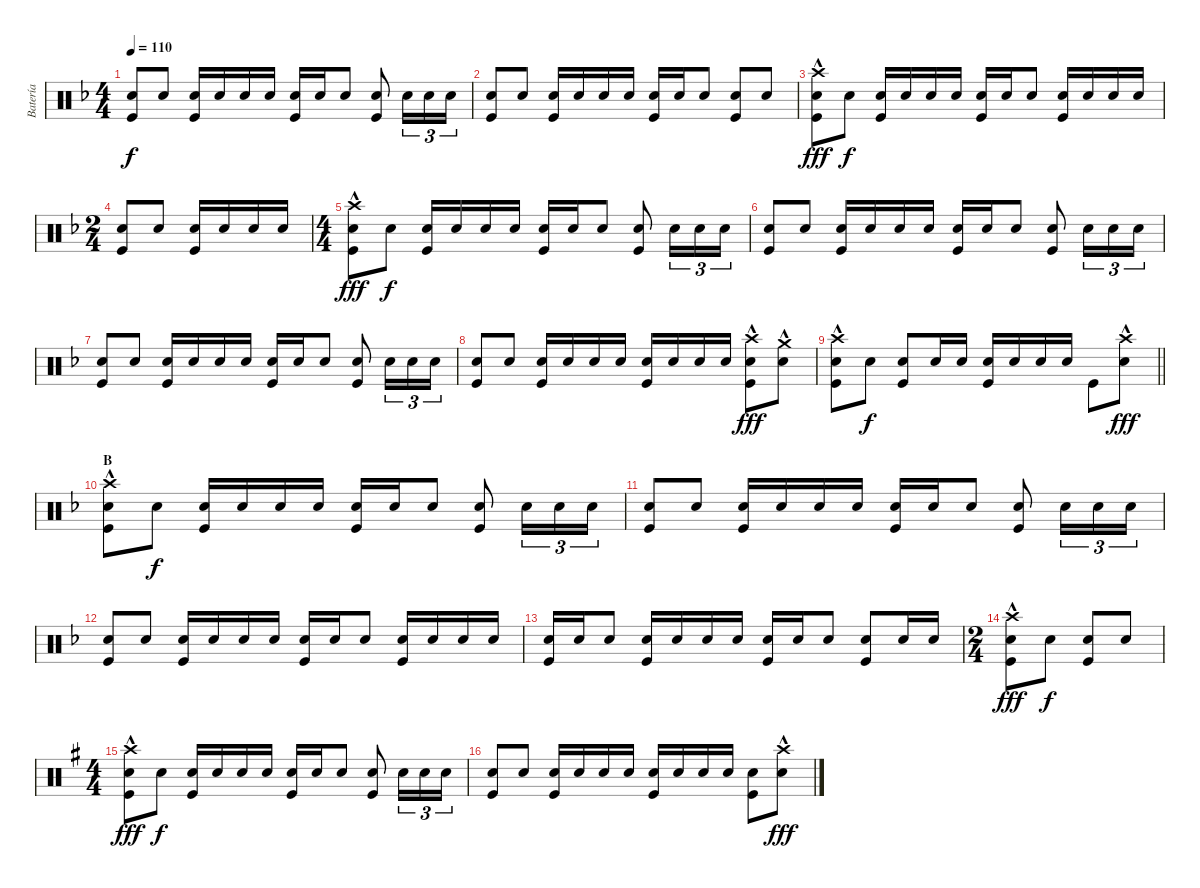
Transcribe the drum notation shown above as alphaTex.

\track ("Batería" "Batería") {instrument percussion}
\staff {score}
\articulation defaults
\ts (4 4)
\tempo 110
\clef neutral
\ks f
("Kick (hit)" "Snare (hit) 2").8{dy f} "Snare (hit) 2".8 ("Snare (hit) 2" "Kick (hit)").16 "Snare (hit) 2".16 "Snare (hit) 2".16 "Snare (hit) 2".16 ("Snare (hit) 2" "Kick (hit)").16 "Snare (hit) 2".16 "Snare (hit) 2".8 ("Snare (hit) 2" "Kick (hit)").8 "Snare (hit) 2".16{tu (3 2)} "Snare (hit) 2".16{tu (3 2)} "Snare (hit) 2".16{tu (3 2)} |
("Kick (hit)" "Snare (hit) 2").8 "Snare (hit) 2".8 ("Snare (hit) 2" "Kick (hit)").16 "Snare (hit) 2".16 "Snare (hit) 2".16 "Snare (hit) 2".16 ("Snare (hit) 2" "Kick (hit)").16 "Snare (hit) 2".16 "Snare (hit) 2".8 ("Kick (hit)" "Snare (hit) 2").8 "Snare (hit) 2".8 |
("Crash high (hit)"{hac} "Kick (hit)" "Snare (hit) 2").8{dy fff} "Snare (hit) 2".8{dy f} ("Snare (hit) 2" "Kick (hit)").16 "Snare (hit) 2".16 "Snare (hit) 2".16 "Snare (hit) 2".16 ("Snare (hit) 2" "Kick (hit)").16 "Snare (hit) 2".16 "Snare (hit) 2".8 ("Snare (hit) 2" "Kick (hit)").16 "Snare (hit) 2".16 "Snare (hit) 2".16 "Snare (hit) 2".16 |
\ts (2 4)
("Kick (hit)" "Snare (hit) 2").8 "Snare (hit) 2".8 ("Snare (hit) 2" "Kick (hit)").16 "Snare (hit) 2".16 "Snare (hit) 2".16 "Snare (hit) 2".16 |
\ts (4 4)
("Crash high (hit)"{hac} "Kick (hit)" "Snare (hit) 2").8{dy fff} "Snare (hit) 2".8{dy f} ("Snare (hit) 2" "Kick (hit)").16 "Snare (hit) 2".16 "Snare (hit) 2".16 "Snare (hit) 2".16 ("Snare (hit) 2" "Kick (hit)").16 "Snare (hit) 2".16 "Snare (hit) 2".8 ("Snare (hit) 2" "Kick (hit)").8 "Snare (hit) 2".16{tu (3 2)} "Snare (hit) 2".16{tu (3 2)} "Snare (hit) 2".16{tu (3 2)} |
("Kick (hit)" "Snare (hit) 2").8 "Snare (hit) 2".8 ("Snare (hit) 2" "Kick (hit)").16 "Snare (hit) 2".16 "Snare (hit) 2".16 "Snare (hit) 2".16 ("Snare (hit) 2" "Kick (hit)").16 "Snare (hit) 2".16 "Snare (hit) 2".8 ("Snare (hit) 2" "Kick (hit)").8 "Snare (hit) 2".16{tu (3 2)} "Snare (hit) 2".16{tu (3 2)} "Snare (hit) 2".16{tu (3 2)} |
("Kick (hit)" "Snare (hit) 2").8 "Snare (hit) 2".8 ("Snare (hit) 2" "Kick (hit)").16 "Snare (hit) 2".16 "Snare (hit) 2".16 "Snare (hit) 2".16 ("Snare (hit) 2" "Kick (hit)").16 "Snare (hit) 2".16 "Snare (hit) 2".8 ("Snare (hit) 2" "Kick (hit)").8 "Snare (hit) 2".16{tu (3 2)} "Snare (hit) 2".16{tu (3 2)} "Snare (hit) 2".16{tu (3 2)} |
("Kick (hit)" "Snare (hit) 2").8 "Snare (hit) 2".8 ("Snare (hit) 2" "Kick (hit)").16 "Snare (hit) 2".16 "Snare (hit) 2".16 "Snare (hit) 2".16 ("Snare (hit) 2" "Kick (hit)").16 "Snare (hit) 2".16 "Snare (hit) 2".16 "Snare (hit) 2".16 ("Crash high (hit)"{hac} "Kick (hit)" "Snare (hit) 2").8{dy fff} ("Snare (hit) 2" "Crash medium (hit)"{hac}).8 |
\barLineRight lightlight
("Crash high (hit)"{hac} "Kick (hit)" "Snare (hit) 2").8 "Snare (hit) 2".8{dy f} ("Snare (hit) 2" "Kick (hit)").8 "Snare (hit) 2".16 "Snare (hit) 2".16 ("Snare (hit) 2" "Kick (hit)").16 "Snare (hit) 2".16 "Snare (hit) 2".16 "Snare (hit) 2".16 "Kick (hit)".8 ("Snare (hit) 2" "Crash high (hit)"{hac}).8{dy fff} |
\section ("" "B")
("Crash high (hit)"{hac} "Kick (hit)" "Snare (hit) 2").8 "Snare (hit) 2".8{dy f} ("Snare (hit) 2" "Kick (hit)").16 "Snare (hit) 2".16 "Snare (hit) 2".16 "Snare (hit) 2".16 ("Snare (hit) 2" "Kick (hit)").16 "Snare (hit) 2".16 "Snare (hit) 2".8 ("Snare (hit) 2" "Kick (hit)").8 "Snare (hit) 2".16{tu (3 2)} "Snare (hit) 2".16{tu (3 2)} "Snare (hit) 2".16{tu (3 2)} |
("Kick (hit)" "Snare (hit) 2").8 "Snare (hit) 2".8 ("Snare (hit) 2" "Kick (hit)").16 "Snare (hit) 2".16 "Snare (hit) 2".16 "Snare (hit) 2".16 ("Snare (hit) 2" "Kick (hit)").16 "Snare (hit) 2".16 "Snare (hit) 2".8 ("Snare (hit) 2" "Kick (hit)").8 "Snare (hit) 2".16{tu (3 2)} "Snare (hit) 2".16{tu (3 2)} "Snare (hit) 2".16{tu (3 2)} |
("Kick (hit)" "Snare (hit) 2").8 "Snare (hit) 2".8 ("Snare (hit) 2" "Kick (hit)").16 "Snare (hit) 2".16 "Snare (hit) 2".16 "Snare (hit) 2".16 ("Snare (hit) 2" "Kick (hit)").16 "Snare (hit) 2".16 "Snare (hit) 2".8 ("Snare (hit) 2" "Kick (hit)").16 "Snare (hit) 2".16 "Snare (hit) 2".16 "Snare (hit) 2".16 |
("Snare (hit) 2" "Kick (hit)").16 "Snare (hit) 2".16 "Snare (hit) 2".8 ("Snare (hit) 2" "Kick (hit)").16 "Snare (hit) 2".16 "Snare (hit) 2".16 "Snare (hit) 2".16 ("Snare (hit) 2" "Kick (hit)").16 "Snare (hit) 2".16 "Snare (hit) 2".8 ("Snare (hit) 2" "Kick (hit)").8 "Snare (hit) 2".16 "Snare (hit) 2".16 |
\ts (2 4)
("Crash high (hit)"{hac} "Kick (hit)" "Snare (hit) 2").8{dy fff} "Snare (hit) 2".8{dy f} ("Kick (hit)" "Snare (hit) 2").8 "Snare (hit) 2".8 |
\ts (4 4)
\ks g
("Crash high (hit)"{hac} "Kick (hit)" "Snare (hit) 2").8{dy fff} "Snare (hit) 2".8{dy f} ("Snare (hit) 2" "Kick (hit)").16 "Snare (hit) 2".16 "Snare (hit) 2".16 "Snare (hit) 2".16 ("Snare (hit) 2" "Kick (hit)").16 "Snare (hit) 2".16 "Snare (hit) 2".8 ("Snare (hit) 2" "Kick (hit)").8 "Snare (hit) 2".16{tu (3 2)} "Snare (hit) 2".16{tu (3 2)} "Snare (hit) 2".16{tu (3 2)} |
("Kick (hit)" "Snare (hit) 2").8 "Snare (hit) 2".8 ("Snare (hit) 2" "Kick (hit)").16 "Snare (hit) 2".16 "Snare (hit) 2".16 "Snare (hit) 2".16 ("Snare (hit) 2" "Kick (hit)").16 "Snare (hit) 2".16 "Snare (hit) 2".16 "Snare (hit) 2".16 ("Snare (hit) 2" "Kick (hit)").8 ("Snare (hit) 2" "Crash high (hit)"{hac}).8{dy fff}
